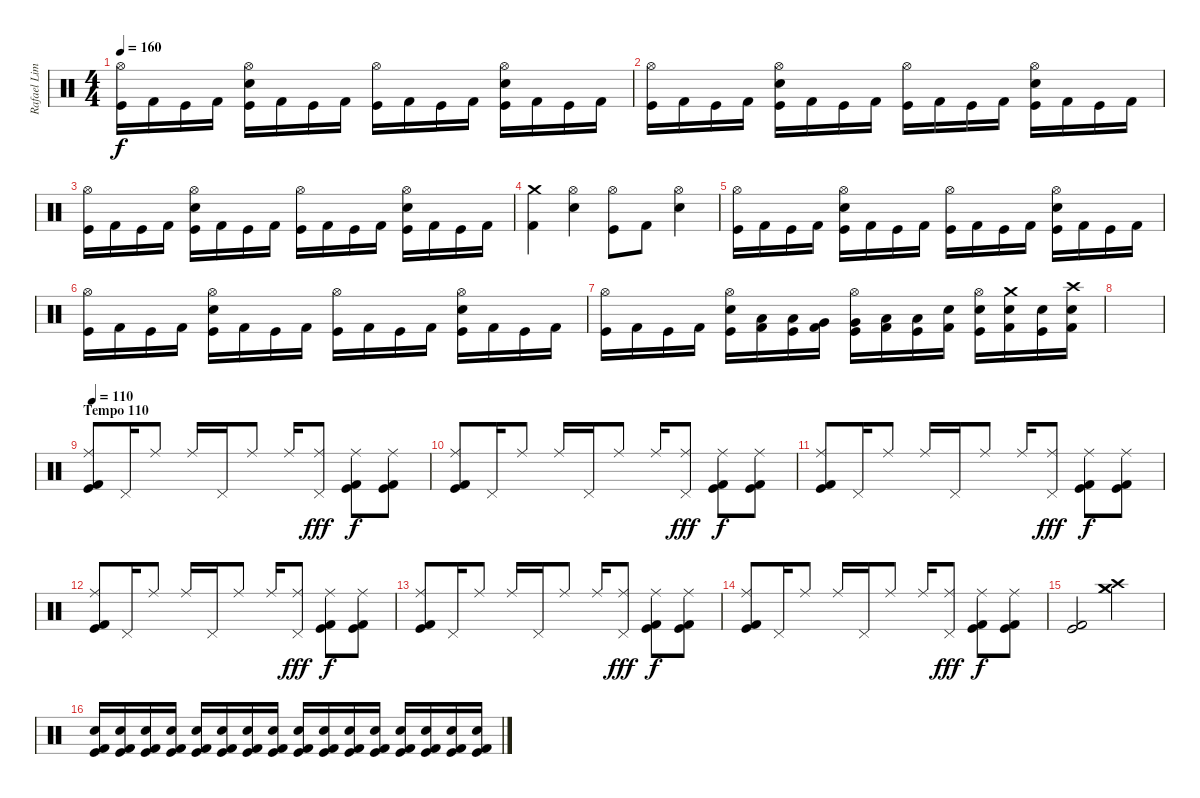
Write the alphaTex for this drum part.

\track ("Rafael Lima" "Rafael Lim") {instrument percussion}
\staff {score}
\articulation defaults
\ts (4 4)
\tempo 160
\clef neutral
\ks c
("Hi-Hat (open)" "Kick (hit)").16{dy f} "Kick (hit) 2".16 "Kick (hit)".16 "Kick (hit) 2".16 ("Hi-Hat (open)" "Electric Snare (hit)" "Kick (hit)").16 "Kick (hit) 2".16 "Kick (hit)".16 "Kick (hit) 2".16 ("Hi-Hat (open)" "Kick (hit)").16 "Kick (hit) 2".16 "Kick (hit)".16 "Kick (hit) 2".16 ("Hi-Hat (open)" "Electric Snare (hit)" "Kick (hit)").16 "Kick (hit) 2".16 "Kick (hit)".16 "Kick (hit) 2".16 |
("Hi-Hat (open)" "Kick (hit)").16 "Kick (hit) 2".16 "Kick (hit)".16 "Kick (hit) 2".16 ("Hi-Hat (open)" "Electric Snare (hit)" "Kick (hit)").16 "Kick (hit) 2".16 "Kick (hit)".16 "Kick (hit) 2".16 ("Hi-Hat (open)" "Kick (hit)").16 "Kick (hit) 2".16 "Kick (hit)".16 "Kick (hit) 2".16 ("Hi-Hat (open)" "Electric Snare (hit)" "Kick (hit)").16 "Kick (hit) 2".16 "Kick (hit)".16 "Kick (hit) 2".16 |
("Hi-Hat (open)" "Kick (hit)").16 "Kick (hit) 2".16 "Kick (hit)".16 "Kick (hit) 2".16 ("Hi-Hat (open)" "Electric Snare (hit)" "Kick (hit)").16 "Kick (hit) 2".16 "Kick (hit)".16 "Kick (hit) 2".16 ("Hi-Hat (open)" "Kick (hit)").16 "Kick (hit) 2".16 "Kick (hit)".16 "Kick (hit) 2".16 ("Hi-Hat (open)" "Electric Snare (hit)" "Kick (hit)").16 "Kick (hit) 2".16 "Kick (hit)".16 "Kick (hit) 2".16 |
("Crash medium (hit)" "Kick (hit) 2").4 ("Hi-Hat (open)" "Electric Snare (hit)").4 ("Hi-Hat (open)" "Kick (hit)").8 "Kick (hit) 2".8 ("Hi-Hat (open)" "Electric Snare (hit)").4 |
("Hi-Hat (open)" "Kick (hit)").16 "Kick (hit) 2".16 "Kick (hit)".16 "Kick (hit) 2".16 ("Hi-Hat (open)" "Electric Snare (hit)" "Kick (hit)").16 "Kick (hit) 2".16 "Kick (hit)".16 "Kick (hit) 2".16 ("Hi-Hat (open)" "Kick (hit)").16 "Kick (hit) 2".16 "Kick (hit)".16 "Kick (hit) 2".16 ("Hi-Hat (open)" "Electric Snare (hit)" "Kick (hit)").16 "Kick (hit) 2".16 "Kick (hit)".16 "Kick (hit) 2".16 |
("Hi-Hat (open)" "Kick (hit)").16 "Kick (hit) 2".16 "Kick (hit)".16 "Kick (hit) 2".16 ("Hi-Hat (open)" "Electric Snare (hit)" "Kick (hit)").16 "Kick (hit) 2".16 "Kick (hit)".16 "Kick (hit) 2".16 ("Hi-Hat (open)" "Kick (hit)").16 "Kick (hit) 2".16 "Kick (hit)".16 "Kick (hit) 2".16 ("Hi-Hat (open)" "Electric Snare (hit)" "Kick (hit)").16 "Kick (hit) 2".16 "Kick (hit)".16 "Kick (hit) 2".16 |
("Hi-Hat (open)" "Kick (hit)").16 "Kick (hit) 2".16 "Kick (hit)".16 "Kick (hit) 2".16 ("Hi-Hat (open)" "Electric Snare (hit)" "Kick (hit)").16 ("Low Tom (hit)" "Kick (hit) 2").16 ("Low Tom (hit)" "Kick (hit)").16 ("Very Low Tom (hit)" "Kick (hit) 2").16 ("Hi-Hat (open)" "Very Low Tom (hit)" "Kick (hit)").16 ("Low Floor Tom (hit)" "Kick (hit) 2").16 ("Low Floor Tom (hit)" "Kick (hit)").16 ("Electric Snare (hit)" "Kick (hit) 2").16 ("Hi-Hat (open)" "Electric Snare (hit)" "Kick (hit)").16 ("Crash medium (hit)" "Electric Snare (hit)" "Kick (hit) 2").16 ("Electric Snare (hit)" "Kick (hit)").16 ("Crash high (hit)" "Electric Snare (hit)" "Kick (hit) 2").16 |
|
\section ("" "Tempo 110")
\tempo 110
("Ride (middle)" "Kick (hit) 2" "Kick (hit)").8 "Pedal Hi-Hat (hit)".16 "Ride (middle)".8 "Ride (middle)".16 "Pedal Hi-Hat (hit)".16 "Ride (middle)".8 "Ride (middle)".16 ("Pedal Hi-Hat (hit)" "Ride (middle)").8{dy fff} ("Ride (middle)" "Kick (hit)" "Kick (hit) 2").8{dy f} ("Ride (middle)" "Kick (hit) 2" "Kick (hit)").8 |
("Ride (middle)" "Kick (hit)" "Kick (hit) 2").8 "Pedal Hi-Hat (hit)".16 "Ride (middle)".8 "Ride (middle)".16 "Pedal Hi-Hat (hit)".16 "Ride (middle)".8 "Ride (middle)".16 ("Pedal Hi-Hat (hit)" "Ride (middle)").8{dy fff} ("Ride (middle)" "Kick (hit) 2" "Kick (hit)").8{dy f} ("Ride (middle)" "Kick (hit)" "Kick (hit) 2").8 |
("Ride (middle)" "Kick (hit) 2" "Kick (hit)").8 "Pedal Hi-Hat (hit)".16 "Ride (middle)".8 "Ride (middle)".16 "Pedal Hi-Hat (hit)".16 "Ride (middle)".8 "Ride (middle)".16 ("Pedal Hi-Hat (hit)" "Ride (middle)").8{dy fff} ("Ride (middle)" "Kick (hit)" "Kick (hit) 2").8{dy f} ("Ride (middle)" "Kick (hit) 2" "Kick (hit)").8 |
("Ride (middle)" "Kick (hit)" "Kick (hit) 2").8 "Pedal Hi-Hat (hit)".16 "Ride (middle)".8 "Ride (middle)".16 "Pedal Hi-Hat (hit)".16 "Ride (middle)".8 "Ride (middle)".16 ("Pedal Hi-Hat (hit)" "Ride (middle)").8{dy fff} ("Ride (middle)" "Kick (hit) 2" "Kick (hit)").8{dy f} ("Ride (middle)" "Kick (hit)" "Kick (hit) 2").8 |
("Ride (middle)" "Kick (hit) 2" "Kick (hit)").8 "Pedal Hi-Hat (hit)".16 "Ride (middle)".8 "Ride (middle)".16 "Pedal Hi-Hat (hit)".16 "Ride (middle)".8 "Ride (middle)".16 ("Pedal Hi-Hat (hit)" "Ride (middle)").8{dy fff} ("Ride (middle)" "Kick (hit)" "Kick (hit) 2").8{dy f} ("Ride (middle)" "Kick (hit) 2" "Kick (hit)").8 |
("Ride (middle)" "Kick (hit)" "Kick (hit) 2").8 "Pedal Hi-Hat (hit)".16 "Ride (middle)".8 "Ride (middle)".16 "Pedal Hi-Hat (hit)".16 "Ride (middle)".8 "Ride (middle)".16 ("Pedal Hi-Hat (hit)" "Ride (middle)").8{dy fff} ("Ride (middle)" "Kick (hit) 2" "Kick (hit)").8{dy f} ("Ride (middle)" "Kick (hit)" "Kick (hit) 2").8 |
("Kick (hit)" "Kick (hit) 2").2 ("Crash medium (hit)" "Crash high (hit)" "Crash medium (hit)").2 |
("Kick (hit)" "Electric Snare (hit)" "Kick (hit) 2").16 ("Kick (hit) 2" "Electric Snare (hit)" "Kick (hit)").16 ("Kick (hit)" "Electric Snare (hit)" "Kick (hit) 2").16 ("Kick (hit) 2" "Electric Snare (hit)" "Kick (hit)").16 ("Kick (hit)" "Electric Snare (hit)" "Kick (hit) 2").16 ("Kick (hit) 2" "Electric Snare (hit)" "Kick (hit)").16 ("Kick (hit)" "Electric Snare (hit)" "Kick (hit) 2").16 ("Kick (hit) 2" "Electric Snare (hit)" "Kick (hit)").16 ("Kick (hit)" "Electric Snare (hit)" "Kick (hit) 2").16 ("Kick (hit) 2" "Electric Snare (hit)" "Kick (hit)").16 ("Kick (hit)" "Electric Snare (hit)" "Kick (hit) 2").16 ("Kick (hit) 2" "Electric Snare (hit)" "Kick (hit)").16 ("Kick (hit)" "Electric Snare (hit)" "Kick (hit) 2").16 ("Kick (hit) 2" "Electric Snare (hit)" "Kick (hit)").16 ("Kick (hit)" "Electric Snare (hit)" "Kick (hit) 2").16 ("Kick (hit) 2" "Electric Snare (hit)" "Kick (hit)").16
